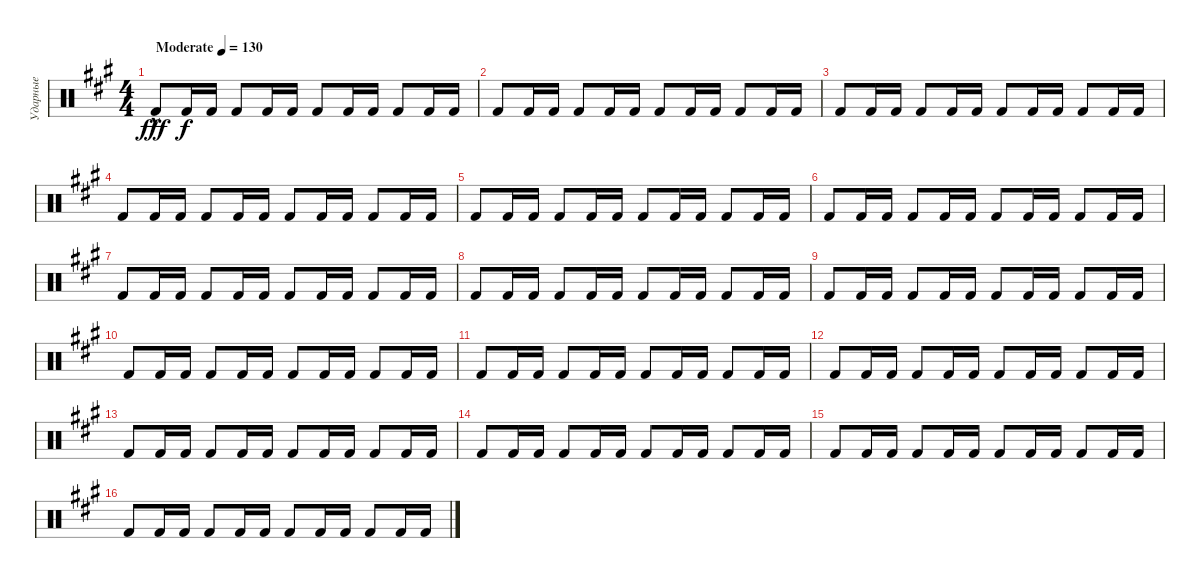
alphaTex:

\track ("Ударные" "Ударные") {instrument percussion}
\staff {score}
\articulation defaults
\ts (4 4)
\tempo (130 "Moderate")
\clef neutral
\ks f#minor "Kick (hit) 2"{hac}.8{dy fff} "Kick (hit) 2".16{dy f} "Kick (hit) 2".16 "Kick (hit) 2".8 "Kick (hit) 2".16 "Kick (hit) 2".16 "Kick (hit) 2".8 "Kick (hit) 2".16 "Kick (hit) 2".16 "Kick (hit) 2".8 "Kick (hit) 2".16 "Kick (hit) 2".16
|
"Kick (hit) 2".8 "Kick (hit) 2".16 "Kick (hit) 2".16 "Kick (hit) 2".8 "Kick (hit) 2".16 "Kick (hit) 2".16 "Kick (hit) 2".8 "Kick (hit) 2".16 "Kick (hit) 2".16 "Kick (hit) 2".8 "Kick (hit) 2".16 "Kick (hit) 2".16 |
"Kick (hit) 2".8 "Kick (hit) 2".16 "Kick (hit) 2".16 "Kick (hit) 2".8 "Kick (hit) 2".16 "Kick (hit) 2".16 "Kick (hit) 2".8 "Kick (hit) 2".16 "Kick (hit) 2".16 "Kick (hit) 2".8 "Kick (hit) 2".16 "Kick (hit) 2".16 |
"Kick (hit) 2".8 "Kick (hit) 2".16 "Kick (hit) 2".16 "Kick (hit) 2".8 "Kick (hit) 2".16 "Kick (hit) 2".16 "Kick (hit) 2".8 "Kick (hit) 2".16 "Kick (hit) 2".16 "Kick (hit) 2".8 "Kick (hit) 2".16 "Kick (hit) 2".16 |
"Kick (hit) 2".8 "Kick (hit) 2".16 "Kick (hit) 2".16 "Kick (hit) 2".8 "Kick (hit) 2".16 "Kick (hit) 2".16 "Kick (hit) 2".8 "Kick (hit) 2".16 "Kick (hit) 2".16 "Kick (hit) 2".8 "Kick (hit) 2".16 "Kick (hit) 2".16 |
"Kick (hit) 2".8 "Kick (hit) 2".16 "Kick (hit) 2".16 "Kick (hit) 2".8 "Kick (hit) 2".16 "Kick (hit) 2".16 "Kick (hit) 2".8 "Kick (hit) 2".16 "Kick (hit) 2".16 "Kick (hit) 2".8 "Kick (hit) 2".16 "Kick (hit) 2".16 |
"Kick (hit) 2".8 "Kick (hit) 2".16 "Kick (hit) 2".16 "Kick (hit) 2".8 "Kick (hit) 2".16 "Kick (hit) 2".16 "Kick (hit) 2".8 "Kick (hit) 2".16 "Kick (hit) 2".16 "Kick (hit) 2".8 "Kick (hit) 2".16 "Kick (hit) 2".16 |
"Kick (hit) 2".8 "Kick (hit) 2".16 "Kick (hit) 2".16 "Kick (hit) 2".8 "Kick (hit) 2".16 "Kick (hit) 2".16 "Kick (hit) 2".8 "Kick (hit) 2".16 "Kick (hit) 2".16 "Kick (hit) 2".8 "Kick (hit) 2".16 "Kick (hit) 2".16 |
"Kick (hit) 2".8 "Kick (hit) 2".16 "Kick (hit) 2".16 "Kick (hit) 2".8 "Kick (hit) 2".16 "Kick (hit) 2".16 "Kick (hit) 2".8 "Kick (hit) 2".16 "Kick (hit) 2".16 "Kick (hit) 2".8 "Kick (hit) 2".16 "Kick (hit) 2".16 |
"Kick (hit) 2".8 "Kick (hit) 2".16 "Kick (hit) 2".16 "Kick (hit) 2".8 "Kick (hit) 2".16 "Kick (hit) 2".16 "Kick (hit) 2".8 "Kick (hit) 2".16 "Kick (hit) 2".16 "Kick (hit) 2".8 "Kick (hit) 2".16 "Kick (hit) 2".16 |
"Kick (hit) 2".8 "Kick (hit) 2".16 "Kick (hit) 2".16 "Kick (hit) 2".8 "Kick (hit) 2".16 "Kick (hit) 2".16 "Kick (hit) 2".8 "Kick (hit) 2".16 "Kick (hit) 2".16 "Kick (hit) 2".8 "Kick (hit) 2".16 "Kick (hit) 2".16 |
"Kick (hit) 2".8 "Kick (hit) 2".16 "Kick (hit) 2".16 "Kick (hit) 2".8 "Kick (hit) 2".16 "Kick (hit) 2".16 "Kick (hit) 2".8 "Kick (hit) 2".16 "Kick (hit) 2".16 "Kick (hit) 2".8 "Kick (hit) 2".16 "Kick (hit) 2".16 |
"Kick (hit) 2".8 "Kick (hit) 2".16 "Kick (hit) 2".16 "Kick (hit) 2".8 "Kick (hit) 2".16 "Kick (hit) 2".16 "Kick (hit) 2".8 "Kick (hit) 2".16 "Kick (hit) 2".16 "Kick (hit) 2".8 "Kick (hit) 2".16 "Kick (hit) 2".16 |
"Kick (hit) 2".8 "Kick (hit) 2".16 "Kick (hit) 2".16 "Kick (hit) 2".8 "Kick (hit) 2".16 "Kick (hit) 2".16 "Kick (hit) 2".8 "Kick (hit) 2".16 "Kick (hit) 2".16 "Kick (hit) 2".8 "Kick (hit) 2".16 "Kick (hit) 2".16 |
"Kick (hit) 2".8 "Kick (hit) 2".16 "Kick (hit) 2".16 "Kick (hit) 2".8 "Kick (hit) 2".16 "Kick (hit) 2".16 "Kick (hit) 2".8 "Kick (hit) 2".16 "Kick (hit) 2".16 "Kick (hit) 2".8 "Kick (hit) 2".16 "Kick (hit) 2".16 |
"Kick (hit) 2".8 "Kick (hit) 2".16 "Kick (hit) 2".16 "Kick (hit) 2".8 "Kick (hit) 2".16 "Kick (hit) 2".16 "Kick (hit) 2".8 "Kick (hit) 2".16 "Kick (hit) 2".16 "Kick (hit) 2".8 "Kick (hit) 2".16 "Kick (hit) 2".16
